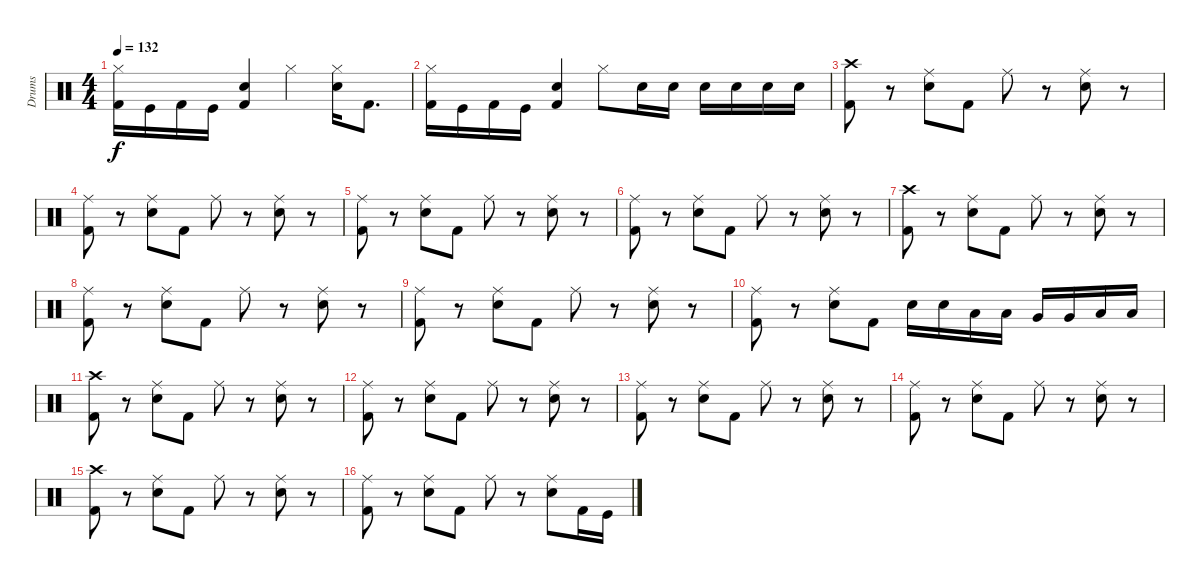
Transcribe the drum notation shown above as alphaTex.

\track ("Drums" "Drums") {instrument percussion}
\staff {score}
\articulation defaults
\ts (4 4)
\tempo 132
\clef neutral
\ks c
("Kick (hit) 2" "Hi-Hat (closed)").16{dy f} "Kick (hit)".16 "Kick (hit) 2".16 "Kick (hit)".16 ("Kick (hit) 2" "Snare (hit) 2").4 "Hi-Hat (closed)".4 ("Hi-Hat (closed)" "Snare (hit) 2").16 "Kick (hit) 2".8{d} |
("Kick (hit) 2" "Hi-Hat (closed)").16 "Kick (hit)".16 "Kick (hit) 2".16 "Kick (hit)".16 ("Kick (hit) 2" "Snare (hit) 2").4 "Hi-Hat (closed)".8 "Snare (hit) 2".16 "Snare (hit) 2".16 "Snare (hit) 2".16 "Snare (hit) 2".16 "Snare (hit) 2".16 "Snare (hit) 2".16 |
("Crash high (hit)" "Kick (hit) 2").8 r.8 ("Ride (middle)" "Snare (hit) 2").8 "Kick (hit) 2".8 "Ride (middle)".8 r.8 ("Snare (hit) 2" "Ride (middle)").8 r.8 |
("Ride (middle)" "Kick (hit) 2").8 r.8 ("Ride (middle)" "Snare (hit) 2").8 "Kick (hit) 2".8 "Ride (middle)".8 r.8 ("Snare (hit) 2" "Ride (middle)").8 r.8 |
("Ride (middle)" "Kick (hit) 2").8 r.8 ("Ride (middle)" "Snare (hit) 2").8 "Kick (hit) 2".8 "Ride (middle)".8 r.8 ("Snare (hit) 2" "Ride (middle)").8 r.8 |
("Ride (middle)" "Kick (hit) 2").8 r.8 ("Ride (middle)" "Snare (hit) 2").8 "Kick (hit) 2".8 "Ride (middle)".8 r.8 ("Snare (hit) 2" "Ride (middle)").8 r.8 |
("Crash high (hit)" "Kick (hit) 2").8 r.8 ("Ride (middle)" "Snare (hit) 2").8 "Kick (hit) 2".8 "Ride (middle)".8 r.8 ("Snare (hit) 2" "Ride (middle)").8 r.8 |
("Ride (middle)" "Kick (hit) 2").8 r.8 ("Ride (middle)" "Snare (hit) 2").8 "Kick (hit) 2".8 "Ride (middle)".8 r.8 ("Snare (hit) 2" "Ride (middle)").8 r.8 |
("Ride (middle)" "Kick (hit) 2").8 r.8 ("Ride (middle)" "Snare (hit) 2").8 "Kick (hit) 2".8 "Ride (middle)".8 r.8 ("Snare (hit) 2" "Ride (middle)").8 r.8 |
("Ride (middle)" "Kick (hit) 2").8 r.8 ("Ride (middle)" "Snare (hit) 2").8 "Kick (hit) 2".8 "Snare (hit) 2".16 "Snare (hit) 2".16 "Low Tom (hit)".16 "Low Tom (hit)".16 "Very Low Tom (hit)".16 "Very Low Tom (hit)".16 "Low Floor Tom (hit)".16 "Low Floor Tom (hit)".16 |
("Crash high (hit)" "Kick (hit) 2").8 r.8 ("Ride (middle)" "Snare (hit) 2").8 "Kick (hit) 2".8 "Ride (middle)".8 r.8 ("Snare (hit) 2" "Ride (middle)").8 r.8 |
("Ride (middle)" "Kick (hit) 2").8 r.8 ("Ride (middle)" "Snare (hit) 2").8 "Kick (hit) 2".8 "Ride (middle)".8 r.8 ("Snare (hit) 2" "Ride (middle)").8 r.8 |
("Ride (middle)" "Kick (hit) 2").8 r.8 ("Ride (middle)" "Snare (hit) 2").8 "Kick (hit) 2".8 "Ride (middle)".8 r.8 ("Snare (hit) 2" "Ride (middle)").8 r.8 |
("Ride (middle)" "Kick (hit) 2").8 r.8 ("Ride (middle)" "Snare (hit) 2").8 "Kick (hit) 2".8 "Ride (middle)".8 r.8 ("Snare (hit) 2" "Ride (middle)").8 r.8 |
("Crash high (hit)" "Kick (hit) 2").8 r.8 ("Ride (middle)" "Snare (hit) 2").8 "Kick (hit) 2".8 "Ride (middle)".8 r.8 ("Snare (hit) 2" "Ride (middle)").8 r.8 |
("Ride (middle)" "Kick (hit) 2").8 r.8 ("Ride (middle)" "Snare (hit) 2").8 "Kick (hit) 2".8 "Ride (middle)".8 r.8 ("Snare (hit) 2" "Ride (middle)").8 "Kick (hit) 2".16 "Kick (hit)".16
